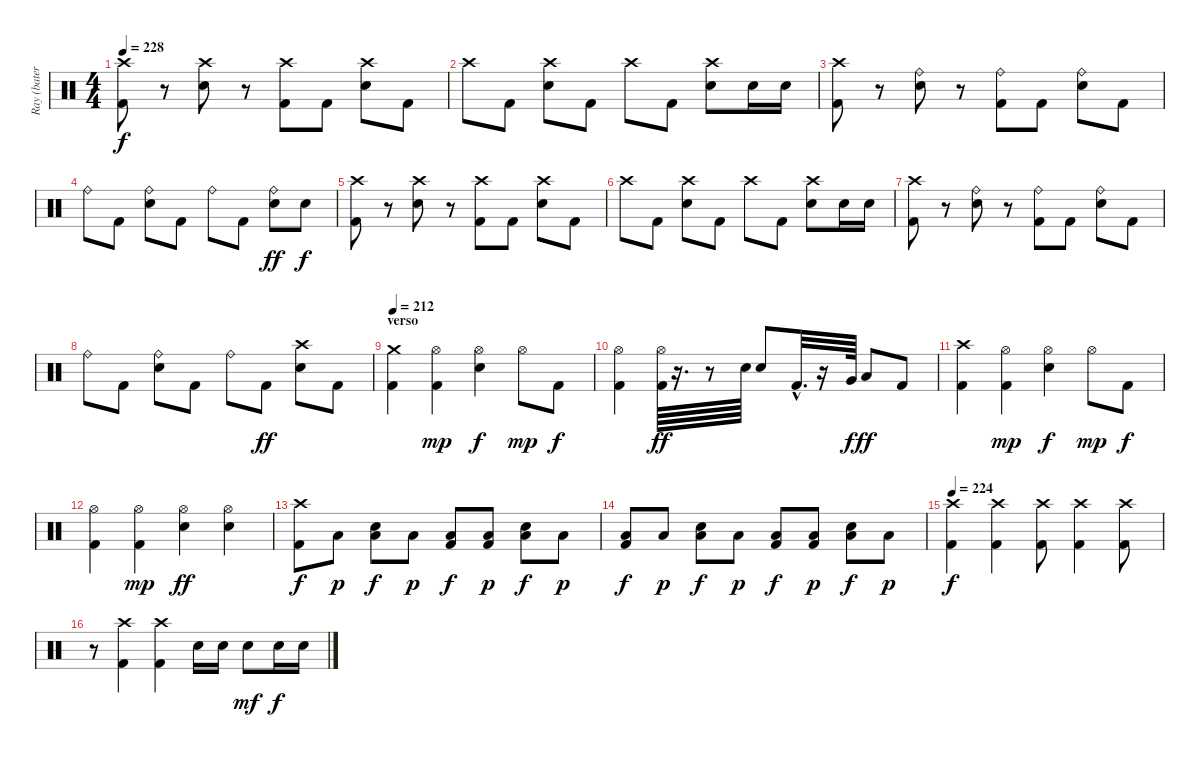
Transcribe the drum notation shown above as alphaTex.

\track ("Ray (batería)" "Ray (bater") {instrument percussion}
\staff {score}
\articulation defaults
\ts (4 4)
\tempo 228
\clef neutral
\ks c
("Crash high (hit)" "Kick (hit) 2").8{dy f} r.8 ("Crash high (hit)" "Snare (hit) 2").8 r.8 ("Crash high (hit)" "Kick (hit) 2").8 "Kick (hit) 2".8 ("Crash high (hit)" "Snare (hit) 2").8 "Kick (hit) 2".8 |
"Crash high (hit)".8 "Kick (hit) 2".8 ("Crash high (hit)" "Snare (hit) 2").8 "Kick (hit) 2".8 "Crash high (hit)".8 "Kick (hit) 2".8 ("Crash high (hit)" "Snare (hit) 2").8 "Snare (hit) 2".16 "Snare (hit) 2".16 |
("Crash high (hit)" "Kick (hit) 2").8 r.8 ("Ride (bell)" "Snare (hit) 2").8 r.8 ("Ride (bell)" "Kick (hit) 2").8 "Kick (hit) 2".8 ("Ride (bell)" "Snare (hit) 2").8 "Kick (hit) 2".8 |
"Ride (bell)".8 "Kick (hit) 2".8 ("Ride (bell)" "Snare (hit) 2").8 "Kick (hit) 2".8 "Ride (bell)".8 "Kick (hit) 2".8 ("Ride (bell)" "Snare (hit) 2").8{dy ff} "Snare (hit) 2".8{dy f} |
("Crash high (hit)" "Kick (hit) 2").8 r.8 ("Crash high (hit)" "Snare (hit) 2").8 r.8 ("Crash high (hit)" "Kick (hit) 2").8 "Kick (hit) 2".8 ("Crash high (hit)" "Snare (hit) 2").8 "Kick (hit) 2".8 |
"Crash high (hit)".8 "Kick (hit) 2".8 ("Crash high (hit)" "Snare (hit) 2").8 "Kick (hit) 2".8 "Crash high (hit)".8 "Kick (hit) 2".8 ("Crash high (hit)" "Snare (hit) 2").8 "Snare (hit) 2".16 "Snare (hit) 2".16 |
("Crash high (hit)" "Kick (hit) 2").8 r.8 ("Ride (bell)" "Snare (hit) 2").8 r.8 ("Ride (bell)" "Kick (hit) 2").8 "Kick (hit) 2".8 ("Ride (bell)" "Snare (hit) 2").8 "Kick (hit) 2".8 |
"Ride (bell)".8 "Kick (hit) 2".8 ("Ride (bell)" "Snare (hit) 2").8 "Kick (hit) 2".8 "Ride (bell)".8 "Kick (hit) 2".8{dy ff} ("Crash high (hit)" "Snare (hit) 2").8 "Kick (hit) 2".8 |
\section ("" "verso")
\tempo 212
("Crash medium (hit)" "Kick (hit) 2").4 ("Hi-Hat (open)" "Kick (hit) 2").4{dy mp} ("Hi-Hat (open)" "Snare (hit) 2").4{dy f} "Hi-Hat (open)".8{dy mp} "Kick (hit) 2".8{dy f} |
("Hi-Hat (open)" "Kick (hit) 2").4 ("Hi-Hat (open)" "Kick (hit) 2").64{dy ff} r.16{d} r.8 "Snare (hit) 2".64 "Snare (hit) 2".8 "Kick (hit) 2"{hac}.32{d} r.16 "Very Low Tom (hit)".64{dy f} "Low Tom (hit)".8{dy ff} "Kick (hit) 2".8 |
("Crash high (hit)" "Kick (hit) 2").4 ("Hi-Hat (open)" "Kick (hit) 2").4{dy mp} ("Hi-Hat (open)" "Snare (hit) 2").4{dy f} "Hi-Hat (open)".8{dy mp} "Kick (hit) 2".8{dy f} |
("Hi-Hat (open)" "Kick (hit) 2").4 ("Hi-Hat (open)" "Kick (hit) 2").4{dy mp} ("Hi-Hat (open)" "Snare (hit) 2").4{dy ff} ("Hi-Hat (open)" "Snare (hit) 2").4 |
("Crash high (hit)" "Kick (hit) 2").8{dy f} "Low Tom (hit)".8{dy p} ("Snare (hit) 2" "Low Tom (hit)").8{dy f} "Low Tom (hit)".8{dy p} ("Low Tom (hit)" "Kick (hit) 2").8{dy f} ("Low Tom (hit)" "Kick (hit) 2").8{dy p} ("Snare (hit) 2" "Low Tom (hit)").8{dy f} "Low Tom (hit)".8{dy p} |
("Low Tom (hit)" "Kick (hit) 2").8{dy f} "Low Tom (hit)".8{dy p} ("Snare (hit) 2" "Low Tom (hit)").8{dy f} "Low Tom (hit)".8{dy p} ("Low Tom (hit)" "Kick (hit) 2").8{dy f} ("Low Tom (hit)" "Kick (hit) 2").8{dy p} ("Snare (hit) 2" "Low Tom (hit)").8{dy f} "Low Tom (hit)".8{dy p} |
\tempo 224
("Crash high (hit)" "Kick (hit) 2").4{dy f} ("Crash high (hit)" "Kick (hit) 2").4 ("Crash high (hit)" "Kick (hit) 2").8 ("Crash high (hit)" "Kick (hit) 2").4 ("Crash high (hit)" "Kick (hit) 2").8 |
r.8 ("Crash high (hit)" "Kick (hit) 2").4 ("Crash high (hit)" "Kick (hit) 2").4 "Snare (hit) 2".16 "Snare (hit) 2".16 "Snare (hit) 2".8{dy mf} "Snare (hit) 2".16{dy f} "Snare (hit) 2".16
